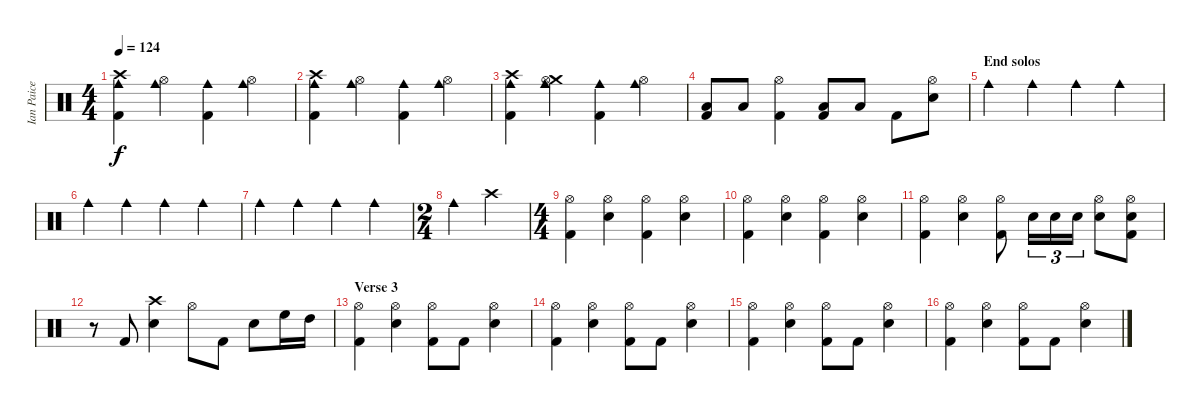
\track ("Ian Paice (drum)" "Ian Paice ") {instrument percussion}
\staff {score}
\articulation defaults
\ts (4 4)
\tempo 124
\clef neutral
\ks c
("Crash high (hit)" "Cowbell medium (hit)" "Kick (hit) 2").4{dy f} ("Hi-Hat (open)" "Cowbell medium (hit)").4 ("Cowbell medium (hit)" "Kick (hit) 2").4 ("Hi-Hat (open)" "Cowbell medium (hit)").4 |
("Crash high (hit)" "Cowbell medium (hit)" "Kick (hit) 2").4 ("Hi-Hat (open)" "Cowbell medium (hit)").4 ("Cowbell medium (hit)" "Kick (hit) 2").4 ("Hi-Hat (open)" "Cowbell medium (hit)").4 |
("Crash high (hit)" "Cowbell medium (hit)" "Kick (hit) 2").4 ("Crash medium (hit)" "Hi-Hat (open)" "Cowbell medium (hit)").4 ("Cowbell medium (hit)" "Kick (hit) 2").4 ("Hi-Hat (open)" "Cowbell medium (hit)").4 |
("Low Tom (hit)" "Kick (hit) 2").8 "Low Tom (hit)".8 ("Hi-Hat (open)" "Kick (hit) 2").4 ("Low Floor Tom (hit)" "Kick (hit) 2").8 "Low Floor Tom (hit)".8 "Kick (hit) 2".8 ("Hi-Hat (open)" "Snare (hit) 2").8 |
\section ("" "End solos")
"Cowbell medium (hit)".4 "Cowbell medium (hit)".4 "Cowbell medium (hit)".4 "Cowbell medium (hit)".4 |
"Cowbell medium (hit)".4 "Cowbell medium (hit)".4 "Cowbell medium (hit)".4 "Cowbell medium (hit)".4 |
"Cowbell medium (hit)".4 "Cowbell medium (hit)".4 "Cowbell medium (hit)".4 "Cowbell medium (hit)".4 |
\ts (2 4)
"Cowbell medium (hit)".4 "Crash high (hit)".4 |
\ts (4 4)
("Hi-Hat (open)" "Kick (hit) 2").4 ("Snare (hit) 2" "Hi-Hat (open)").4 ("Hi-Hat (open)" "Kick (hit) 2").4 ("Snare (hit) 2" "Hi-Hat (open)").4 |
("Hi-Hat (open)" "Kick (hit) 2").4 ("Snare (hit) 2" "Hi-Hat (open)").4 ("Hi-Hat (open)" "Kick (hit) 2").4 ("Snare (hit) 2" "Hi-Hat (open)").4 |
("Hi-Hat (open)" "Kick (hit) 2").4 ("Snare (hit) 2" "Hi-Hat (open)").4 ("Hi-Hat (open)" "Kick (hit) 2").8 "Snare (hit) 2".16{tu (3 2)} "Snare (hit) 2".16{tu (3 2)} "Snare (hit) 2".16{tu (3 2)} ("Snare (hit) 2" "Hi-Hat (open)").8 ("Snare (hit) 2" "Hi-Hat (open)" "Kick (hit) 2").8 |
r.8 "Kick (hit) 2".8 ("Snare (hit) 2" "Crash high (hit)").4 "Hi-Hat (open)".8 "Kick (hit) 2".8 "Snare (hit) 2".8 "High Floor Tom (hit)".16 "High Tom (hit)".16 |
\section ("" "Verse 3")
("Hi-Hat (open)" "Kick (hit) 2").4 ("Snare (hit) 2" "Hi-Hat (open)").4 ("Hi-Hat (open)" "Kick (hit) 2").8 "Kick (hit) 2".8 ("Snare (hit) 2" "Hi-Hat (open)").4 |
("Hi-Hat (open)" "Kick (hit) 2").4 ("Snare (hit) 2" "Hi-Hat (open)").4 ("Hi-Hat (open)" "Kick (hit) 2").8 "Kick (hit) 2".8 ("Snare (hit) 2" "Hi-Hat (open)").4 |
("Hi-Hat (open)" "Kick (hit) 2").4 ("Snare (hit) 2" "Hi-Hat (open)").4 ("Hi-Hat (open)" "Kick (hit) 2").8 "Kick (hit) 2".8 ("Snare (hit) 2" "Hi-Hat (open)").4 |
("Hi-Hat (open)" "Kick (hit) 2").4 ("Snare (hit) 2" "Hi-Hat (open)").4 ("Hi-Hat (open)" "Kick (hit) 2").8 "Kick (hit) 2".8 ("Snare (hit) 2" "Hi-Hat (open)").4
